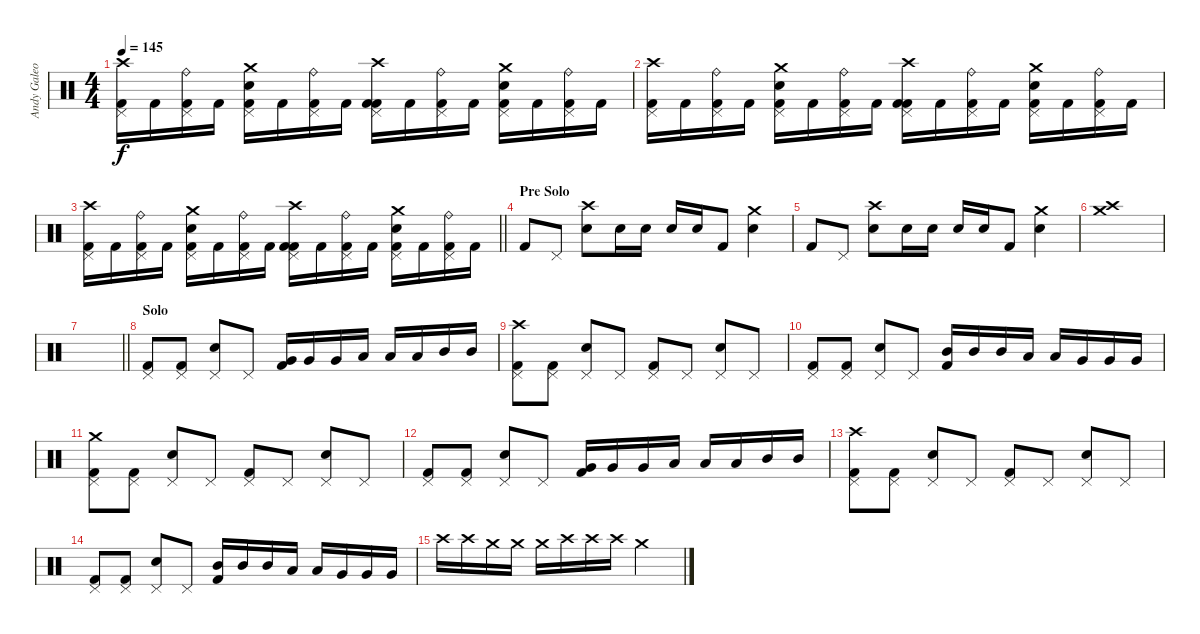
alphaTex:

\track ("Andy Galeon" "Andy Galeo") {instrument percussion}
\staff {score}
\articulation defaults
\ts (4 4)
\tempo 145
\clef neutral
\ks c
("Kick (hit) 2" "Pedal Hi-Hat (hit)" "Crash high (hit)").16{dy f} "Kick (hit) 2".16 ("Kick (hit) 2" "Pedal Hi-Hat (hit)" "Ride (bell)").16 "Kick (hit) 2".16 ("Electric Snare (hit)" "Kick (hit) 2" "Pedal Hi-Hat (hit)" "Crash medium (hit)").16 "Kick (hit) 2".16 ("Kick (hit) 2" "Pedal Hi-Hat (hit)" "Ride (bell)").16 "Kick (hit) 2".16 ("Kick (hit) 2" "Kick (hit) 2" "Pedal Hi-Hat (hit)" "Crash high (hit)").16 "Kick (hit) 2".16 ("Kick (hit) 2" "Pedal Hi-Hat (hit)" "Ride (bell)").16 "Kick (hit) 2".16 ("Electric Snare (hit)" "Kick (hit) 2" "Pedal Hi-Hat (hit)" "Crash medium (hit)").16 "Kick (hit) 2".16 ("Kick (hit) 2" "Pedal Hi-Hat (hit)" "Ride (bell)").16 "Kick (hit) 2".16 |
("Kick (hit) 2" "Pedal Hi-Hat (hit)" "Crash high (hit)").16 "Kick (hit) 2".16 ("Kick (hit) 2" "Pedal Hi-Hat (hit)" "Ride (bell)").16 "Kick (hit) 2".16 ("Electric Snare (hit)" "Kick (hit) 2" "Pedal Hi-Hat (hit)" "Crash medium (hit)").16 "Kick (hit) 2".16 ("Kick (hit) 2" "Pedal Hi-Hat (hit)" "Ride (bell)").16 "Kick (hit) 2".16 ("Kick (hit) 2" "Kick (hit) 2" "Pedal Hi-Hat (hit)" "Crash high (hit)").16 "Kick (hit) 2".16 ("Kick (hit) 2" "Pedal Hi-Hat (hit)" "Ride (bell)").16 "Kick (hit) 2".16 ("Electric Snare (hit)" "Kick (hit) 2" "Pedal Hi-Hat (hit)" "Crash medium (hit)").16 "Kick (hit) 2".16 ("Kick (hit) 2" "Pedal Hi-Hat (hit)" "Ride (bell)").16 "Kick (hit) 2".16 |
\barLineRight lightlight
("Kick (hit) 2" "Pedal Hi-Hat (hit)" "Crash high (hit)").16 "Kick (hit) 2".16 ("Kick (hit) 2" "Pedal Hi-Hat (hit)" "Ride (bell)").16 "Kick (hit) 2".16 ("Electric Snare (hit)" "Kick (hit) 2" "Pedal Hi-Hat (hit)" "Crash medium (hit)").16 "Kick (hit) 2".16 ("Kick (hit) 2" "Pedal Hi-Hat (hit)" "Ride (bell)").16 "Kick (hit) 2".16 ("Kick (hit) 2" "Kick (hit) 2" "Pedal Hi-Hat (hit)" "Crash high (hit)").16 "Kick (hit) 2".16 ("Kick (hit) 2" "Pedal Hi-Hat (hit)" "Ride (bell)").16 "Kick (hit) 2".16 ("Electric Snare (hit)" "Kick (hit) 2" "Pedal Hi-Hat (hit)" "Crash medium (hit)").16 "Kick (hit) 2".16 ("Kick (hit) 2" "Pedal Hi-Hat (hit)" "Ride (bell)").16 "Kick (hit) 2".16 |
\section ("" "Pre Solo")
"Kick (hit) 2".8 "Pedal Hi-Hat (hit)".8 ("Electric Snare (hit)" "Crash high (hit)").8 "Electric Snare (hit)".16 "Electric Snare (hit)".16 "Electric Snare (hit)".16 "Electric Snare (hit)".16 "Kick (hit) 2".8 ("Electric Snare (hit)" "Crash medium (hit)").4 |
"Kick (hit) 2".8 "Pedal Hi-Hat (hit)".8 ("Electric Snare (hit)" "Crash high (hit)").8 "Electric Snare (hit)".16 "Electric Snare (hit)".16 "Electric Snare (hit)".16 "Electric Snare (hit)".16 "Kick (hit) 2".8 ("Electric Snare (hit)" "Crash medium (hit)").4 |
("Crash high (hit)" "Crash medium (hit)").1 |
\barLineRight lightlight
|
\section ("" "Solo")
("Kick (hit) 2" "Pedal Hi-Hat (hit)").8 ("Kick (hit) 2" "Pedal Hi-Hat (hit)").8 ("Electric Snare (hit)" "Pedal Hi-Hat (hit)").8 "Pedal Hi-Hat (hit)".8 ("Kick (hit) 2" "Very Low Tom (hit)").16 "Very Low Tom (hit)".16 "Very Low Tom (hit)".16 "Low Tom (hit)".16 "Low Tom (hit)".16 "Low Tom (hit)".16 "Mid Tom (hit)".16 "Mid Tom (hit)".16 |
("Kick (hit) 2" "Pedal Hi-Hat (hit)" "Crash high (hit)").8 ("Kick (hit) 2" "Pedal Hi-Hat (hit)").8 ("Electric Snare (hit)" "Pedal Hi-Hat (hit)").8 "Pedal Hi-Hat (hit)".8 ("Kick (hit) 2" "Pedal Hi-Hat (hit)").8 "Pedal Hi-Hat (hit)".8 ("Electric Snare (hit)" "Pedal Hi-Hat (hit)").8 "Pedal Hi-Hat (hit)".8 |
("Kick (hit) 2" "Pedal Hi-Hat (hit)").8 ("Kick (hit) 2" "Pedal Hi-Hat (hit)").8 ("Electric Snare (hit)" "Pedal Hi-Hat (hit)").8 "Pedal Hi-Hat (hit)".8 ("Kick (hit) 2" "Mid Tom (hit)").16 "Mid Tom (hit)".16 "Mid Tom (hit)".16 "Low Tom (hit)".16 "Low Tom (hit)".16 "Very Low Tom (hit)".16 "Very Low Tom (hit)".16 "Very Low Tom (hit)".16 |
("Kick (hit) 2" "Pedal Hi-Hat (hit)" "Crash medium (hit)").8 ("Kick (hit) 2" "Pedal Hi-Hat (hit)").8 ("Electric Snare (hit)" "Pedal Hi-Hat (hit)").8 "Pedal Hi-Hat (hit)".8 ("Kick (hit) 2" "Pedal Hi-Hat (hit)").8 "Pedal Hi-Hat (hit)".8 ("Electric Snare (hit)" "Pedal Hi-Hat (hit)").8 "Pedal Hi-Hat (hit)".8 |
("Kick (hit) 2" "Pedal Hi-Hat (hit)").8 ("Kick (hit) 2" "Pedal Hi-Hat (hit)").8 ("Electric Snare (hit)" "Pedal Hi-Hat (hit)").8 "Pedal Hi-Hat (hit)".8 ("Kick (hit) 2" "Very Low Tom (hit)").16 "Very Low Tom (hit)".16 "Very Low Tom (hit)".16 "Low Tom (hit)".16 "Low Tom (hit)".16 "Low Tom (hit)".16 "Mid Tom (hit)".16 "Mid Tom (hit)".16 |
("Kick (hit) 2" "Pedal Hi-Hat (hit)" "Crash high (hit)").8 ("Kick (hit) 2" "Pedal Hi-Hat (hit)").8 ("Electric Snare (hit)" "Pedal Hi-Hat (hit)").8 "Pedal Hi-Hat (hit)".8 ("Kick (hit) 2" "Pedal Hi-Hat (hit)").8 "Pedal Hi-Hat (hit)".8 ("Electric Snare (hit)" "Pedal Hi-Hat (hit)").8 "Pedal Hi-Hat (hit)".8 |
("Kick (hit) 2" "Pedal Hi-Hat (hit)").8 ("Kick (hit) 2" "Pedal Hi-Hat (hit)").8 ("Electric Snare (hit)" "Pedal Hi-Hat (hit)").8 "Pedal Hi-Hat (hit)".8 ("Kick (hit) 2" "Mid Tom (hit)").16 "Mid Tom (hit)".16 "Mid Tom (hit)".16 "Low Tom (hit)".16 "Low Tom (hit)".16 "Very Low Tom (hit)".16 "Very Low Tom (hit)".16 "Very Low Tom (hit)".16 |
"Crash high (hit)".16 "Crash high (hit)".16 "Crash medium (hit)".16 "Crash medium (hit)".16 "Crash medium (hit)".16 "Crash high (hit)".16 "Crash high (hit)".16 "Crash high (hit)".16 "Crash medium (hit)".2
